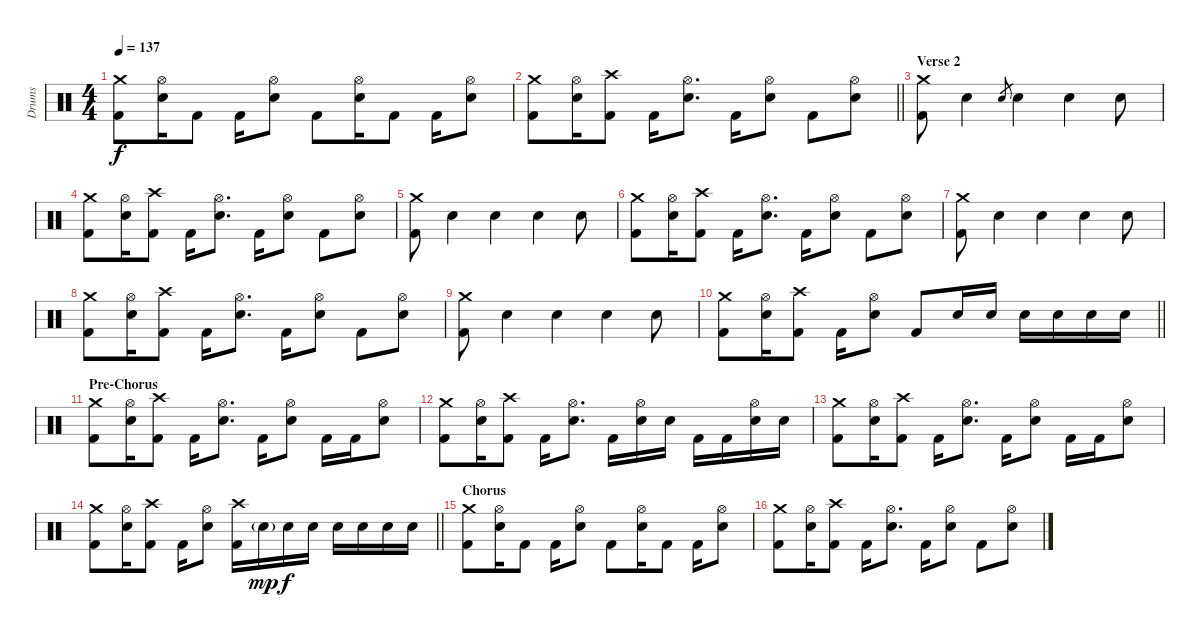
\track ("Drums" "Drums") {instrument percussion}
\staff {score}
\articulation defaults
\ts (4 4)
\tempo 137
\clef neutral
\ks c
("Crash medium (hit)" "Kick (hit) 2").8{dy f} ("Hi-Hat (open)" "Electric Snare (hit)").16 "Kick (hit) 2".8 "Kick (hit) 2".16 ("Hi-Hat (open)" "Electric Snare (hit)").8 "Kick (hit) 2".8 ("Hi-Hat (open)" "Electric Snare (hit)").16 "Kick (hit) 2".8 "Kick (hit) 2".16 ("Hi-Hat (open)" "Electric Snare (hit)").8 |
\barLineRight lightlight
("Crash medium (hit)" "Kick (hit) 2").8 ("Hi-Hat (open)" "Electric Snare (hit)").16 ("Crash high (hit)" "Kick (hit) 2").8 "Kick (hit) 2".16 ("Hi-Hat (open)" "Electric Snare (hit)").8{d} "Kick (hit) 2".16 ("Hi-Hat (open)" "Electric Snare (hit)").8 "Kick (hit) 2".8 ("Hi-Hat (open)" "Electric Snare (hit)").8 |
\section ("" "Verse 2")
("Crash medium (hit)" "Kick (hit) 2").8 "Electric Snare (hit)".4 "Electric Snare (hit)".8{gr} "Electric Snare (hit)".4 "Electric Snare (hit)".4 "Electric Snare (hit)".8 |
("Crash medium (hit)" "Kick (hit) 2").8 ("Hi-Hat (open)" "Electric Snare (hit)").16 ("Crash high (hit)" "Kick (hit) 2").8 "Kick (hit) 2".16 ("Hi-Hat (open)" "Electric Snare (hit)").8{d} "Kick (hit) 2".16 ("Hi-Hat (open)" "Electric Snare (hit)").8 "Kick (hit) 2".8 ("Hi-Hat (open)" "Electric Snare (hit)").8 |
("Crash medium (hit)" "Kick (hit) 2").8 "Electric Snare (hit)".4 "Electric Snare (hit)".4 "Electric Snare (hit)".4 "Electric Snare (hit)".8 |
("Crash medium (hit)" "Kick (hit) 2").8 ("Hi-Hat (open)" "Electric Snare (hit)").16 ("Crash high (hit)" "Kick (hit) 2").8 "Kick (hit) 2".16 ("Hi-Hat (open)" "Electric Snare (hit)").8{d} "Kick (hit) 2".16 ("Hi-Hat (open)" "Electric Snare (hit)").8 "Kick (hit) 2".8 ("Hi-Hat (open)" "Electric Snare (hit)").8 |
("Crash medium (hit)" "Kick (hit) 2").8 "Electric Snare (hit)".4 "Electric Snare (hit)".4 "Electric Snare (hit)".4 "Electric Snare (hit)".8 |
("Crash medium (hit)" "Kick (hit) 2").8 ("Hi-Hat (open)" "Electric Snare (hit)").16 ("Crash high (hit)" "Kick (hit) 2").8 "Kick (hit) 2".16 ("Hi-Hat (open)" "Electric Snare (hit)").8{d} "Kick (hit) 2".16 ("Hi-Hat (open)" "Electric Snare (hit)").8 "Kick (hit) 2".8 ("Hi-Hat (open)" "Electric Snare (hit)").8 |
("Crash medium (hit)" "Kick (hit) 2").8 "Electric Snare (hit)".4 "Electric Snare (hit)".4 "Electric Snare (hit)".4 "Electric Snare (hit)".8 |
\barLineRight lightlight
("Crash medium (hit)" "Kick (hit) 2").8 ("Hi-Hat (open)" "Electric Snare (hit)").16 ("Crash high (hit)" "Kick (hit) 2").8 "Kick (hit) 2".16 ("Hi-Hat (open)" "Electric Snare (hit)").8 "Kick (hit) 2".8 "Electric Snare (hit)".16 "Electric Snare (hit)".16 "Electric Snare (hit)".16 "Electric Snare (hit)".16 "Electric Snare (hit)".16 "Electric Snare (hit)".16 |
\section ("" "Pre-Chorus")
("Crash medium (hit)" "Kick (hit) 2").8 ("Hi-Hat (open)" "Electric Snare (hit)").16 ("Crash high (hit)" "Kick (hit) 2").8 "Kick (hit) 2".16 ("Hi-Hat (open)" "Electric Snare (hit)").8{d} "Kick (hit) 2".16 ("Hi-Hat (open)" "Electric Snare (hit)").8 "Kick (hit) 2".16 "Kick (hit) 2".16 ("Hi-Hat (open)" "Electric Snare (hit)").8 |
("Crash medium (hit)" "Kick (hit) 2").8 ("Hi-Hat (open)" "Electric Snare (hit)").16 ("Crash high (hit)" "Kick (hit) 2").8 "Kick (hit) 2".16 ("Hi-Hat (open)" "Electric Snare (hit)").8{d} "Kick (hit) 2".16 ("Hi-Hat (open)" "Electric Snare (hit)").16 "Electric Snare (hit)".16 "Kick (hit) 2".16 "Kick (hit) 2".16 ("Hi-Hat (open)" "Electric Snare (hit)").16 "Electric Snare (hit)".16 |
("Crash medium (hit)" "Kick (hit) 2").8 ("Hi-Hat (open)" "Electric Snare (hit)").16 ("Crash high (hit)" "Kick (hit) 2").8 "Kick (hit) 2".16 ("Hi-Hat (open)" "Electric Snare (hit)").8{d} "Kick (hit) 2".16 ("Hi-Hat (open)" "Electric Snare (hit)").8 "Kick (hit) 2".16 "Kick (hit) 2".16 ("Hi-Hat (open)" "Electric Snare (hit)").8 |
\barLineRight lightlight
("Crash medium (hit)" "Kick (hit) 2").8 ("Hi-Hat (open)" "Electric Snare (hit)").16 ("Crash high (hit)" "Kick (hit) 2").8 "Kick (hit) 2".16 ("Hi-Hat (open)" "Electric Snare (hit)").8 ("Crash high (hit)" "Kick (hit) 2").16 "Electric Snare (hit)"{g}.16{dy mp} "Electric Snare (hit)".16{dy f} "Electric Snare (hit)".16 "Electric Snare (hit)".16 "Electric Snare (hit)".16 "Electric Snare (hit)".16 "Electric Snare (hit)".16 |
\section ("" "Chorus")
("Crash medium (hit)" "Kick (hit) 2").8 ("Hi-Hat (open)" "Electric Snare (hit)").16 "Kick (hit) 2".8 "Kick (hit) 2".16 ("Hi-Hat (open)" "Electric Snare (hit)").8 "Kick (hit) 2".8 ("Hi-Hat (open)" "Electric Snare (hit)").16 "Kick (hit) 2".8 "Kick (hit) 2".16 ("Hi-Hat (open)" "Electric Snare (hit)").8 |
("Crash medium (hit)" "Kick (hit) 2").8 ("Hi-Hat (open)" "Electric Snare (hit)").16 ("Crash high (hit)" "Kick (hit) 2").8 "Kick (hit) 2".16 ("Hi-Hat (open)" "Electric Snare (hit)").8{d} "Kick (hit) 2".16 ("Hi-Hat (open)" "Electric Snare (hit)").8 "Kick (hit) 2".8 ("Hi-Hat (open)" "Electric Snare (hit)").8
